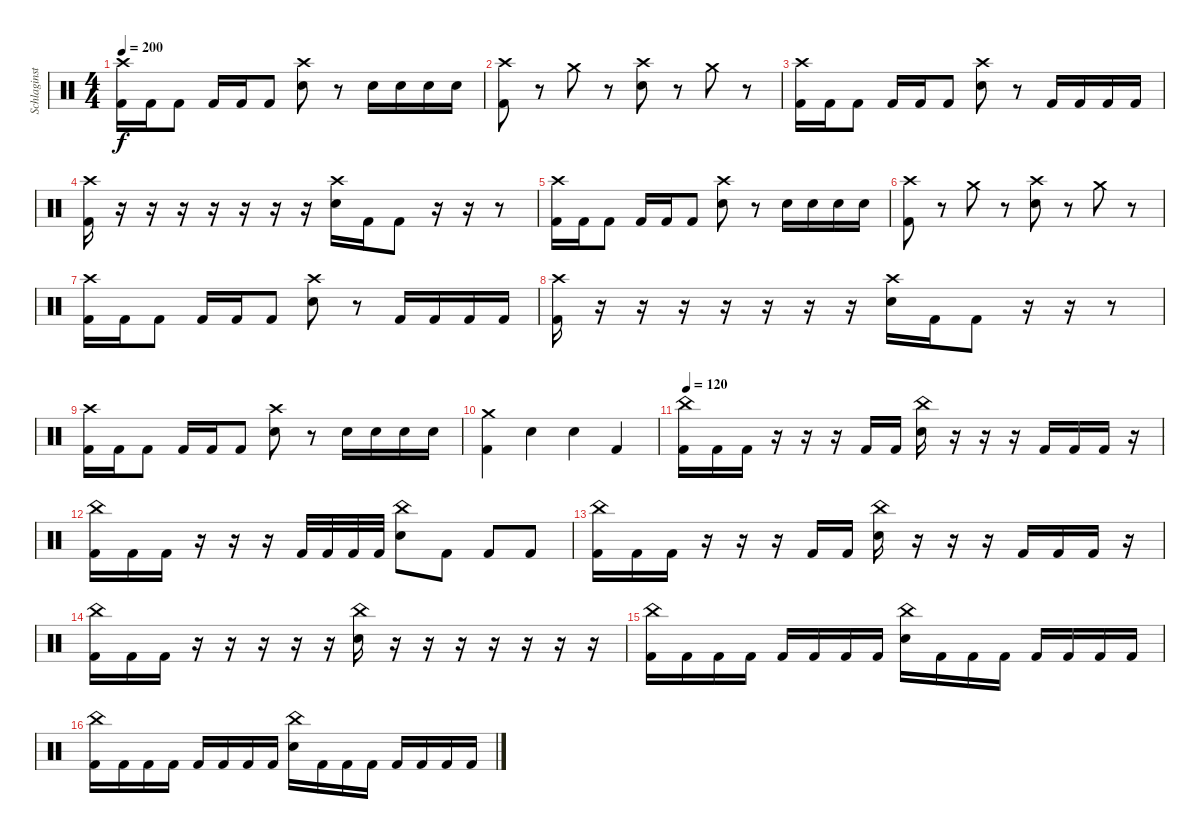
\track ("Schlaginstrumente - Auswahl" "Schlaginst") {instrument percussion}
\staff {score}
\articulation defaults
\ts (4 4)
\tempo 200
\clef neutral
\ks c
("Crash high (hit)" "Kick (hit) 2").16{dy f} "Kick (hit) 2".16 "Kick (hit) 2".8 "Kick (hit) 2".16 "Kick (hit) 2".16 "Kick (hit) 2".8 ("Crash high (hit)" "Electric Snare (hit)").8 r.8 "Electric Snare (hit)".16 "Electric Snare (hit)".16 "Electric Snare (hit)".16 "Electric Snare (hit)".16 |
("Crash high (hit)" "Kick (hit) 2").8 r.8 "Crash medium (hit)".8 r.8 ("Crash high (hit)" "Electric Snare (hit)").8 r.8 "Crash medium (hit)".8 r.8 |
("Crash high (hit)" "Kick (hit) 2").16 "Kick (hit) 2".16 "Kick (hit) 2".8 "Kick (hit) 2".16 "Kick (hit) 2".16 "Kick (hit) 2".8 ("Crash high (hit)" "Electric Snare (hit)").8 r.8 "Kick (hit) 2".16 "Kick (hit) 2".16 "Kick (hit) 2".16 "Kick (hit) 2".16 |
("Crash high (hit)" "Kick (hit) 2").16 r.16 r.16 r.16 r.16 r.16 r.16 r.16 ("Crash high (hit)" "Electric Snare (hit)").16 "Kick (hit) 2".16 "Kick (hit) 2".8 r.16 r.16 r.8 |
("Crash high (hit)" "Kick (hit) 2").16 "Kick (hit) 2".16 "Kick (hit) 2".8 "Kick (hit) 2".16 "Kick (hit) 2".16 "Kick (hit) 2".8 ("Crash high (hit)" "Electric Snare (hit)").8 r.8 "Electric Snare (hit)".16 "Electric Snare (hit)".16 "Electric Snare (hit)".16 "Electric Snare (hit)".16 |
("Crash high (hit)" "Kick (hit) 2").8 r.8 "Crash medium (hit)".8 r.8 ("Crash high (hit)" "Electric Snare (hit)").8 r.8 "Crash medium (hit)".8 r.8 |
("Crash high (hit)" "Kick (hit) 2").16 "Kick (hit) 2".16 "Kick (hit) 2".8 "Kick (hit) 2".16 "Kick (hit) 2".16 "Kick (hit) 2".8 ("Crash high (hit)" "Electric Snare (hit)").8 r.8 "Kick (hit) 2".16 "Kick (hit) 2".16 "Kick (hit) 2".16 "Kick (hit) 2".16 |
("Crash high (hit)" "Kick (hit) 2").16 r.16 r.16 r.16 r.16 r.16 r.16 r.16 ("Crash high (hit)" "Electric Snare (hit)").16 "Kick (hit) 2".16 "Kick (hit) 2".8 r.16 r.16 r.8 |
("Crash high (hit)" "Kick (hit) 2").16 "Kick (hit) 2".16 "Kick (hit) 2".8 "Kick (hit) 2".16 "Kick (hit) 2".16 "Kick (hit) 2".8 ("Crash high (hit)" "Electric Snare (hit)").8 r.8 "Electric Snare (hit)".16 "Electric Snare (hit)".16 "Electric Snare (hit)".16 "Electric Snare (hit)".16 |
("Crash medium (hit)" "Kick (hit) 2").4 "Electric Snare (hit)".4 "Electric Snare (hit)".4 "Kick (hit) 2".4 |
\tempo 120
("China (hit)" "Kick (hit) 2").16 "Kick (hit) 2".16 "Kick (hit) 2".16 r.16 r.16 r.16 "Kick (hit) 2".16 "Kick (hit) 2".16 ("China (hit)" "Electric Snare (hit)").16 r.16 r.16 r.16 "Kick (hit) 2".16 "Kick (hit) 2".16 "Kick (hit) 2".16 r.16 |
("China (hit)" "Kick (hit) 2").16 "Kick (hit) 2".16 "Kick (hit) 2".16 r.16 r.16 r.16 "Kick (hit) 2".32 "Kick (hit) 2".32 "Kick (hit) 2".32 "Kick (hit) 2".32 ("China (hit)" "Electric Snare (hit)").8 "Kick (hit) 2".8 "Kick (hit) 2".8 "Kick (hit) 2".8 |
("China (hit)" "Kick (hit) 2").16 "Kick (hit) 2".16 "Kick (hit) 2".16 r.16 r.16 r.16 "Kick (hit) 2".16 "Kick (hit) 2".16 ("China (hit)" "Electric Snare (hit)").16 r.16 r.16 r.16 "Kick (hit) 2".16 "Kick (hit) 2".16 "Kick (hit) 2".16 r.16 |
("China (hit)" "Kick (hit) 2").16 "Kick (hit) 2".16 "Kick (hit) 2".16 r.16 r.16 r.16 r.16 r.16 ("China (hit)" "Electric Snare (hit)").16 r.16 r.16 r.16 r.16 r.16 r.16 r.16 |
("China (hit)" "Kick (hit) 2").16 "Kick (hit) 2".16 "Kick (hit) 2".16 "Kick (hit) 2".16 "Kick (hit) 2".16 "Kick (hit) 2".16 "Kick (hit) 2".16 "Kick (hit) 2".16 ("China (hit)" "Electric Snare (hit)").16 "Kick (hit) 2".16 "Kick (hit) 2".16 "Kick (hit) 2".16 "Kick (hit) 2".16 "Kick (hit) 2".16 "Kick (hit) 2".16 "Kick (hit) 2".16 |
("China (hit)" "Kick (hit) 2").16 "Kick (hit) 2".16 "Kick (hit) 2".16 "Kick (hit) 2".16 "Kick (hit) 2".16 "Kick (hit) 2".16 "Kick (hit) 2".16 "Kick (hit) 2".16 ("China (hit)" "Electric Snare (hit)").16 "Kick (hit) 2".16 "Kick (hit) 2".16 "Kick (hit) 2".16 "Kick (hit) 2".16 "Kick (hit) 2".16 "Kick (hit) 2".16 "Kick (hit) 2".16
